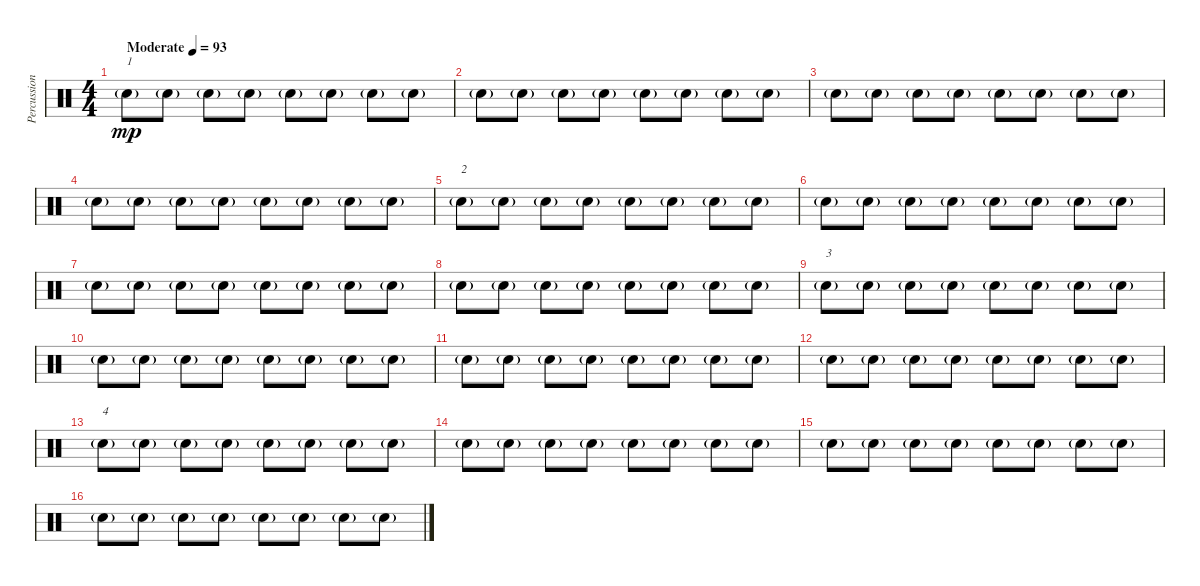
\track ("Percussion" "Percussion") {instrument percussion}
\staff {score}
\articulation defaults
\ts (4 4)
\tempo (93 "Moderate")
\clef neutral
\ks c "Hand Clap (hit)"{g}.8{txt "1" dy mp} "Hand Clap (hit)"{g}.8 "Hand Clap (hit)"{g}.8 "Hand Clap (hit)"{g}.8 "Hand Clap (hit)"{g}.8 "Hand Clap (hit)"{g}.8 "Hand Clap (hit)"{g}.8 "Hand Clap (hit)"{g}.8
|
"Hand Clap (hit)"{g}.8 "Hand Clap (hit)"{g}.8 "Hand Clap (hit)"{g}.8 "Hand Clap (hit)"{g}.8 "Hand Clap (hit)"{g}.8 "Hand Clap (hit)"{g}.8 "Hand Clap (hit)"{g}.8 "Hand Clap (hit)"{g}.8 |
"Hand Clap (hit)"{g}.8 "Hand Clap (hit)"{g}.8 "Hand Clap (hit)"{g}.8 "Hand Clap (hit)"{g}.8 "Hand Clap (hit)"{g}.8 "Hand Clap (hit)"{g}.8 "Hand Clap (hit)"{g}.8 "Hand Clap (hit)"{g}.8 |
"Hand Clap (hit)"{g}.8 "Hand Clap (hit)"{g}.8 "Hand Clap (hit)"{g}.8 "Hand Clap (hit)"{g}.8 "Hand Clap (hit)"{g}.8 "Hand Clap (hit)"{g}.8 "Hand Clap (hit)"{g}.8 "Hand Clap (hit)"{g}.8 |
"Hand Clap (hit)"{g}.8{txt "2"} "Hand Clap (hit)"{g}.8 "Hand Clap (hit)"{g}.8 "Hand Clap (hit)"{g}.8 "Hand Clap (hit)"{g}.8 "Hand Clap (hit)"{g}.8 "Hand Clap (hit)"{g}.8 "Hand Clap (hit)"{g}.8 |
"Hand Clap (hit)"{g}.8 "Hand Clap (hit)"{g}.8 "Hand Clap (hit)"{g}.8 "Hand Clap (hit)"{g}.8 "Hand Clap (hit)"{g}.8 "Hand Clap (hit)"{g}.8 "Hand Clap (hit)"{g}.8 "Hand Clap (hit)"{g}.8 |
"Hand Clap (hit)"{g}.8 "Hand Clap (hit)"{g}.8 "Hand Clap (hit)"{g}.8 "Hand Clap (hit)"{g}.8 "Hand Clap (hit)"{g}.8 "Hand Clap (hit)"{g}.8 "Hand Clap (hit)"{g}.8 "Hand Clap (hit)"{g}.8 |
"Hand Clap (hit)"{g}.8 "Hand Clap (hit)"{g}.8 "Hand Clap (hit)"{g}.8 "Hand Clap (hit)"{g}.8 "Hand Clap (hit)"{g}.8 "Hand Clap (hit)"{g}.8 "Hand Clap (hit)"{g}.8 "Hand Clap (hit)"{g}.8 |
"Hand Clap (hit)"{g}.8{txt "3"} "Hand Clap (hit)"{g}.8 "Hand Clap (hit)"{g}.8 "Hand Clap (hit)"{g}.8 "Hand Clap (hit)"{g}.8 "Hand Clap (hit)"{g}.8 "Hand Clap (hit)"{g}.8 "Hand Clap (hit)"{g}.8 |
"Hand Clap (hit)"{g}.8 "Hand Clap (hit)"{g}.8 "Hand Clap (hit)"{g}.8 "Hand Clap (hit)"{g}.8 "Hand Clap (hit)"{g}.8 "Hand Clap (hit)"{g}.8 "Hand Clap (hit)"{g}.8 "Hand Clap (hit)"{g}.8 |
"Hand Clap (hit)"{g}.8 "Hand Clap (hit)"{g}.8 "Hand Clap (hit)"{g}.8 "Hand Clap (hit)"{g}.8 "Hand Clap (hit)"{g}.8 "Hand Clap (hit)"{g}.8 "Hand Clap (hit)"{g}.8 "Hand Clap (hit)"{g}.8 |
"Hand Clap (hit)"{g}.8 "Hand Clap (hit)"{g}.8 "Hand Clap (hit)"{g}.8 "Hand Clap (hit)"{g}.8 "Hand Clap (hit)"{g}.8 "Hand Clap (hit)"{g}.8 "Hand Clap (hit)"{g}.8 "Hand Clap (hit)"{g}.8 |
"Hand Clap (hit)"{g}.8{txt "4"} "Hand Clap (hit)"{g}.8 "Hand Clap (hit)"{g}.8 "Hand Clap (hit)"{g}.8 "Hand Clap (hit)"{g}.8 "Hand Clap (hit)"{g}.8 "Hand Clap (hit)"{g}.8 "Hand Clap (hit)"{g}.8 |
"Hand Clap (hit)"{g}.8 "Hand Clap (hit)"{g}.8 "Hand Clap (hit)"{g}.8 "Hand Clap (hit)"{g}.8 "Hand Clap (hit)"{g}.8 "Hand Clap (hit)"{g}.8 "Hand Clap (hit)"{g}.8 "Hand Clap (hit)"{g}.8 |
"Hand Clap (hit)"{g}.8 "Hand Clap (hit)"{g}.8 "Hand Clap (hit)"{g}.8 "Hand Clap (hit)"{g}.8 "Hand Clap (hit)"{g}.8 "Hand Clap (hit)"{g}.8 "Hand Clap (hit)"{g}.8 "Hand Clap (hit)"{g}.8 |
"Hand Clap (hit)"{g}.8 "Hand Clap (hit)"{g}.8 "Hand Clap (hit)"{g}.8 "Hand Clap (hit)"{g}.8 "Hand Clap (hit)"{g}.8 "Hand Clap (hit)"{g}.8 "Hand Clap (hit)"{g}.8 "Hand Clap (hit)"{g}.8
